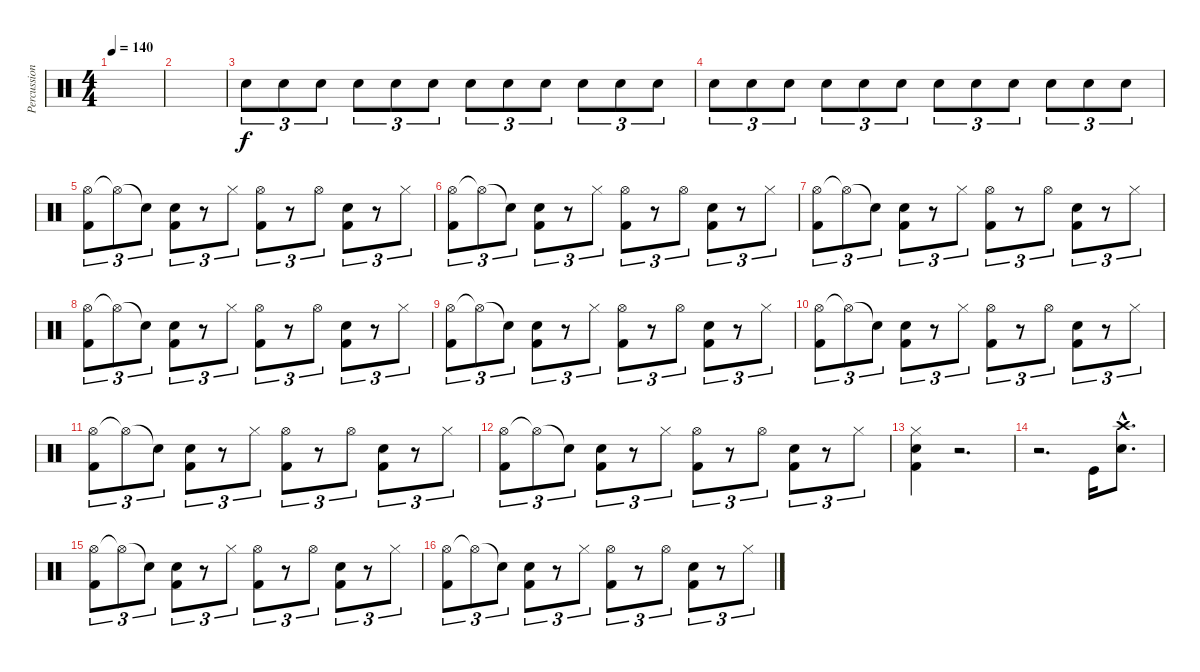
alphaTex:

\track ("Percussion" "Percussion") {instrument percussion}
\staff {score}
\articulation defaults
\ts (4 4)
\tempo 140
\clef neutral
\ks c
|
|
"Snare (hit) 2".8{tu (3 2) volume 16} "Snare (hit) 2".8{tu (3 2)} "Snare (hit) 2".8{tu (3 2)} "Snare (hit) 2".8{tu (3 2)} "Snare (hit) 2".8{tu (3 2)} "Snare (hit) 2".8{tu (3 2)} "Snare (hit) 2".8{tu (3 2)} "Snare (hit) 2".8{tu (3 2)} "Snare (hit) 2".8{tu (3 2)} "Snare (hit) 2".8{tu (3 2)} "Snare (hit) 2".8{tu (3 2)} "Snare (hit) 2".8{tu (3 2)} |
"Snare (hit) 2".8{tu (3 2)} "Snare (hit) 2".8{tu (3 2)} "Snare (hit) 2".8{tu (3 2)} "Snare (hit) 2".8{tu (3 2)} "Snare (hit) 2".8{tu (3 2)} "Snare (hit) 2".8{tu (3 2)} "Snare (hit) 2".8{tu (3 2)} "Snare (hit) 2".8{tu (3 2)} "Snare (hit) 2".8{tu (3 2)} "Snare (hit) 2".8{tu (3 2)} "Snare (hit) 2".8{tu (3 2)} "Snare (hit) 2".8{tu (3 2)} |
("Hi-Hat (open)" "Kick (hit) 2").8{tu (3 2)} "Hi-Hat (open)"{t}.8{tu (3 2)} "Snare (hit)"{t}.8{tu (3 2)} ("Snare (hit) 2" "Kick (hit) 2").8{tu (3 2)} r.8{tu (3 2)} "Hi-Hat (closed)".8{tu (3 2)} ("Hi-Hat (open)" "Kick (hit) 2").8{tu (3 2)} r.8{tu (3 2)} "Hi-Hat (open)".8{tu (3 2)} ("Snare (hit) 2" "Kick (hit) 2").8{tu (3 2)} r.8{tu (3 2)} "Hi-Hat (closed)".8{tu (3 2)} |
("Hi-Hat (open)" "Kick (hit) 2").8{tu (3 2)} "Hi-Hat (open)"{t}.8{tu (3 2)} "Snare (hit)"{t}.8{tu (3 2)} ("Snare (hit) 2" "Kick (hit) 2").8{tu (3 2)} r.8{tu (3 2)} "Hi-Hat (closed)".8{tu (3 2)} ("Hi-Hat (open)" "Kick (hit) 2").8{tu (3 2)} r.8{tu (3 2)} "Hi-Hat (open)".8{tu (3 2)} ("Snare (hit) 2" "Kick (hit) 2").8{tu (3 2)} r.8{tu (3 2)} "Hi-Hat (closed)".8{tu (3 2)} |
("Hi-Hat (open)" "Kick (hit) 2").8{tu (3 2)} "Hi-Hat (open)"{t}.8{tu (3 2)} "Snare (hit)"{t}.8{tu (3 2)} ("Snare (hit) 2" "Kick (hit) 2").8{tu (3 2)} r.8{tu (3 2)} "Hi-Hat (closed)".8{tu (3 2)} ("Hi-Hat (open)" "Kick (hit) 2").8{tu (3 2)} r.8{tu (3 2)} "Hi-Hat (open)".8{tu (3 2)} ("Snare (hit) 2" "Kick (hit) 2").8{tu (3 2)} r.8{tu (3 2)} "Hi-Hat (closed)".8{tu (3 2)} |
("Hi-Hat (open)" "Kick (hit) 2").8{tu (3 2)} "Hi-Hat (open)"{t}.8{tu (3 2)} "Snare (hit)"{t}.8{tu (3 2)} ("Snare (hit) 2" "Kick (hit) 2").8{tu (3 2)} r.8{tu (3 2)} "Hi-Hat (closed)".8{tu (3 2)} ("Hi-Hat (open)" "Kick (hit) 2").8{tu (3 2)} r.8{tu (3 2)} "Hi-Hat (open)".8{tu (3 2)} ("Snare (hit) 2" "Kick (hit) 2").8{tu (3 2)} r.8{tu (3 2)} "Hi-Hat (closed)".8{tu (3 2)} |
("Hi-Hat (open)" "Kick (hit) 2").8{tu (3 2)} "Hi-Hat (open)"{t}.8{tu (3 2)} "Snare (hit)"{t}.8{tu (3 2)} ("Snare (hit) 2" "Kick (hit) 2").8{tu (3 2)} r.8{tu (3 2)} "Hi-Hat (closed)".8{tu (3 2)} ("Hi-Hat (open)" "Kick (hit) 2").8{tu (3 2)} r.8{tu (3 2)} "Hi-Hat (open)".8{tu (3 2)} ("Snare (hit) 2" "Kick (hit) 2").8{tu (3 2)} r.8{tu (3 2)} "Hi-Hat (closed)".8{tu (3 2)} |
("Hi-Hat (open)" "Kick (hit) 2").8{tu (3 2)} "Hi-Hat (open)"{t}.8{tu (3 2)} "Snare (hit)"{t}.8{tu (3 2)} ("Snare (hit) 2" "Kick (hit) 2").8{tu (3 2)} r.8{tu (3 2)} "Hi-Hat (closed)".8{tu (3 2)} ("Hi-Hat (open)" "Kick (hit) 2").8{tu (3 2)} r.8{tu (3 2)} "Hi-Hat (open)".8{tu (3 2)} ("Snare (hit) 2" "Kick (hit) 2").8{tu (3 2)} r.8{tu (3 2)} "Hi-Hat (closed)".8{tu (3 2)} |
("Hi-Hat (open)" "Kick (hit) 2").8{tu (3 2)} "Hi-Hat (open)"{t}.8{tu (3 2)} "Snare (hit)"{t}.8{tu (3 2)} ("Snare (hit) 2" "Kick (hit) 2").8{tu (3 2)} r.8{tu (3 2)} "Hi-Hat (closed)".8{tu (3 2)} ("Hi-Hat (open)" "Kick (hit) 2").8{tu (3 2)} r.8{tu (3 2)} "Hi-Hat (open)".8{tu (3 2)} ("Snare (hit) 2" "Kick (hit) 2").8{tu (3 2)} r.8{tu (3 2)} "Hi-Hat (closed)".8{tu (3 2)} |
("Hi-Hat (open)" "Kick (hit) 2").8{tu (3 2)} "Hi-Hat (open)"{t}.8{tu (3 2)} "Snare (hit)"{t}.8{tu (3 2)} ("Snare (hit) 2" "Kick (hit) 2").8{tu (3 2)} r.8{tu (3 2)} "Hi-Hat (closed)".8{tu (3 2)} ("Hi-Hat (open)" "Kick (hit) 2").8{tu (3 2)} r.8{tu (3 2)} "Hi-Hat (open)".8{tu (3 2)} ("Snare (hit) 2" "Kick (hit) 2").8{tu (3 2)} r.8{tu (3 2)} "Hi-Hat (closed)".8{tu (3 2)} |
("Hi-Hat (closed)" "Snare (hit) 2" "Kick (hit) 2").4 r.2{d} |
r.2{d} "Kick (hit)".16 ("Crash high (hit)"{hac} "Snare (hit) 2"{hac}).8{d} |
("Hi-Hat (open)" "Kick (hit) 2").8{tu (3 2)} "Hi-Hat (open)"{t}.8{tu (3 2)} "Snare (hit)"{t}.8{tu (3 2)} ("Snare (hit) 2" "Kick (hit) 2").8{tu (3 2)} r.8{tu (3 2)} "Hi-Hat (closed)".8{tu (3 2)} ("Hi-Hat (open)" "Kick (hit) 2").8{tu (3 2)} r.8{tu (3 2)} "Hi-Hat (open)".8{tu (3 2)} ("Snare (hit) 2" "Kick (hit) 2").8{tu (3 2)} r.8{tu (3 2)} "Hi-Hat (closed)".8{tu (3 2)} |
("Hi-Hat (open)" "Kick (hit) 2").8{tu (3 2)} "Hi-Hat (open)"{t}.8{tu (3 2)} "Snare (hit)"{t}.8{tu (3 2)} ("Snare (hit) 2" "Kick (hit) 2").8{tu (3 2)} r.8{tu (3 2)} "Hi-Hat (closed)".8{tu (3 2)} ("Hi-Hat (open)" "Kick (hit) 2").8{tu (3 2)} r.8{tu (3 2)} "Hi-Hat (open)".8{tu (3 2)} ("Snare (hit) 2" "Kick (hit) 2").8{tu (3 2)} r.8{tu (3 2)} "Hi-Hat (closed)".8{tu (3 2)}
